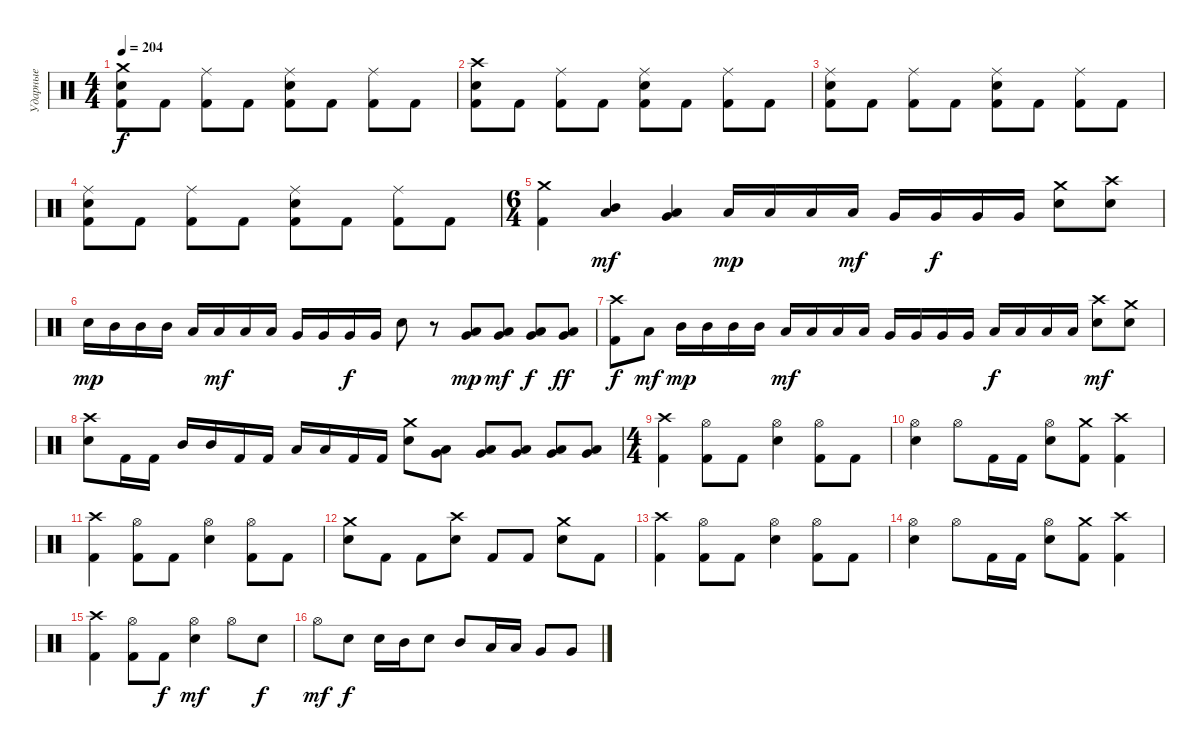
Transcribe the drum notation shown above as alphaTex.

\track ("Ударные" "Ударные") {instrument percussion}
\staff {score}
\articulation defaults
\ts (4 4)
\tempo 204
\clef neutral
\ks c
("Crash medium (hit)" "Snare (hit) 2" "Kick (hit) 2").8{dy f} "Kick (hit) 2".8 ("Ride (middle)" "Kick (hit) 2").8 "Kick (hit) 2".8 ("Ride (middle)" "Snare (hit) 2" "Kick (hit) 2").8 "Kick (hit) 2".8 ("Ride (middle)" "Kick (hit) 2").8 "Kick (hit) 2".8 |
("Crash high (hit)" "Snare (hit) 2" "Kick (hit) 2").8 "Kick (hit) 2".8 ("Ride (middle)" "Kick (hit) 2").8 "Kick (hit) 2".8 ("Ride (middle)" "Snare (hit) 2" "Kick (hit) 2").8 "Kick (hit) 2".8 ("Ride (middle)" "Kick (hit) 2").8 "Kick (hit) 2".8 |
("Ride (middle)" "Snare (hit) 2" "Kick (hit) 2").8 "Kick (hit) 2".8 ("Ride (middle)" "Kick (hit) 2").8 "Kick (hit) 2".8 ("Ride (middle)" "Snare (hit) 2" "Kick (hit) 2").8 "Kick (hit) 2".8 ("Ride (middle)" "Kick (hit) 2").8 "Kick (hit) 2".8 |
("Ride (middle)" "Snare (hit) 2" "Kick (hit) 2").8 "Kick (hit) 2".8 ("Ride (middle)" "Kick (hit) 2").8 "Kick (hit) 2".8 ("Ride (middle)" "Snare (hit) 2" "Kick (hit) 2").8 "Kick (hit) 2".8 ("Ride (middle)" "Kick (hit) 2").8 "Kick (hit) 2".8 |
\ts (6 4)
("Crash medium (hit)" "Kick (hit) 2").4 ("Mid Tom (hit)" "Low Tom (hit)").4{dy mf} ("Low Tom (hit)" "Very Low Tom (hit)").4 "Low Tom (hit)".16{dy mp} "Low Tom (hit)".16 "Low Tom (hit)".16 "Low Tom (hit)".16{dy mf} "Very Low Tom (hit)".16 "Very Low Tom (hit)".16{dy f} "Very Low Tom (hit)".16 "Very Low Tom (hit)".16 ("Crash medium (hit)" "Snare (hit) 2").8 ("Crash high (hit)" "Snare (hit) 2").8 |
"Snare (hit) 2".16{dy mp} "Mid Tom (hit)".16 "Mid Tom (hit)".16 "Mid Tom (hit)".16 "Low Tom (hit)".16 "Low Tom (hit)".16{dy mf} "Low Tom (hit)".16 "Low Tom (hit)".16 "Very Low Tom (hit)".16 "Very Low Tom (hit)".16 "Very Low Tom (hit)".16{dy f} "Very Low Tom (hit)".16 "Snare (hit) 2".8 r.8 ("Low Tom (hit)" "Very Low Tom (hit)").8{dy mp} ("Low Tom (hit)" "Very Low Tom (hit)").8{dy mf} ("Low Tom (hit)" "Very Low Tom (hit)").8{dy f} ("Low Tom (hit)" "Very Low Tom (hit)").8{dy ff} |
("Crash high (hit)" "Kick (hit) 2").8{dy f} "Low Tom (hit)".8{dy mf} "Mid Tom (hit)".16{dy mp} "Mid Tom (hit)".16 "Mid Tom (hit)".16 "Mid Tom (hit)".16 "Low Tom (hit)".16{dy mf} "Low Tom (hit)".16 "Low Tom (hit)".16 "Low Tom (hit)".16 "Very Low Tom (hit)".16 "Very Low Tom (hit)".16 "Very Low Tom (hit)".16 "Very Low Tom (hit)".16 "Low Floor Tom (hit)".16{dy f} "Low Floor Tom (hit)".16 "Low Floor Tom (hit)".16 "Low Floor Tom (hit)".16 ("Crash high (hit)" "Snare (hit) 2").8{dy mf} ("Crash medium (hit)" "Snare (hit) 2").8 |
("Crash high (hit)" "Snare (hit) 2").8 "Kick (hit) 2".16 "Kick (hit) 2".16 "Mid Tom (hit)".16 "Mid Tom (hit)".16 "Kick (hit) 2".16 "Kick (hit) 2".16 "Low Tom (hit)".16 "Low Tom (hit)".16 "Kick (hit) 2".16 "Kick (hit) 2".16 ("Crash medium (hit)" "Snare (hit) 2").8 ("Low Tom (hit)" "Very Low Tom (hit)").8 ("Low Tom (hit)" "Very Low Tom (hit)").8 ("Low Tom (hit)" "Very Low Tom (hit)").8 ("Low Tom (hit)" "Very Low Tom (hit)").8 ("Low Tom (hit)" "Very Low Tom (hit)").8 |
\ts (4 4)
("Crash high (hit)" "Kick (hit) 2").4 ("Hi-Hat (open)" "Kick (hit) 2").8 "Kick (hit) 2".8 ("Hi-Hat (open)" "Snare (hit) 2").4 ("Hi-Hat (open)" "Kick (hit) 2").8 "Kick (hit) 2".8 |
("Hi-Hat (open)" "Snare (hit) 2").4 "Hi-Hat (open)".8 "Kick (hit) 2".16 "Kick (hit) 2".16 ("Hi-Hat (open)" "Snare (hit) 2").8 ("Crash medium (hit)" "Kick (hit) 2").8 ("Crash high (hit)" "Kick (hit) 2").4 |
("Crash high (hit)" "Kick (hit) 2").4 ("Hi-Hat (open)" "Kick (hit) 2").8 "Kick (hit) 2".8 ("Hi-Hat (open)" "Snare (hit) 2").4 ("Hi-Hat (open)" "Kick (hit) 2").8 "Kick (hit) 2".8 |
("Crash medium (hit)" "Snare (hit) 2").8 "Kick (hit) 2".8 "Kick (hit) 2".8 ("Crash high (hit)" "Snare (hit) 2").8 "Kick (hit) 2".8 "Kick (hit) 2".8 ("Crash medium (hit)" "Snare (hit) 2").8 "Kick (hit) 2".8 |
("Crash high (hit)" "Kick (hit) 2").4 ("Hi-Hat (open)" "Kick (hit) 2").8 "Kick (hit) 2".8 ("Hi-Hat (open)" "Snare (hit) 2").4 ("Hi-Hat (open)" "Kick (hit) 2").8 "Kick (hit) 2".8 |
("Hi-Hat (open)" "Snare (hit) 2").4 "Hi-Hat (open)".8 "Kick (hit) 2".16 "Kick (hit) 2".16 ("Hi-Hat (open)" "Snare (hit) 2").8 ("Crash medium (hit)" "Kick (hit) 2").8 ("Crash high (hit)" "Kick (hit) 2").4 |
("Crash high (hit)" "Kick (hit) 2").4 ("Hi-Hat (open)" "Kick (hit) 2").8 "Kick (hit) 2".8{dy f} ("Hi-Hat (open)" "Snare (hit) 2").4{dy mf} "Hi-Hat (open)".8 "Snare (hit) 2".8{dy f} |
"Hi-Hat (open)".8{dy mf} "Snare (hit) 2".8{dy f} "Snare (hit) 2".16 "Mid Tom (hit)".16 "Snare (hit) 2".8 "Mid Tom (hit)".8 "Low Tom (hit)".16 "Low Tom (hit)".16 "Very Low Tom (hit)".8 "Very Low Tom (hit)".8
